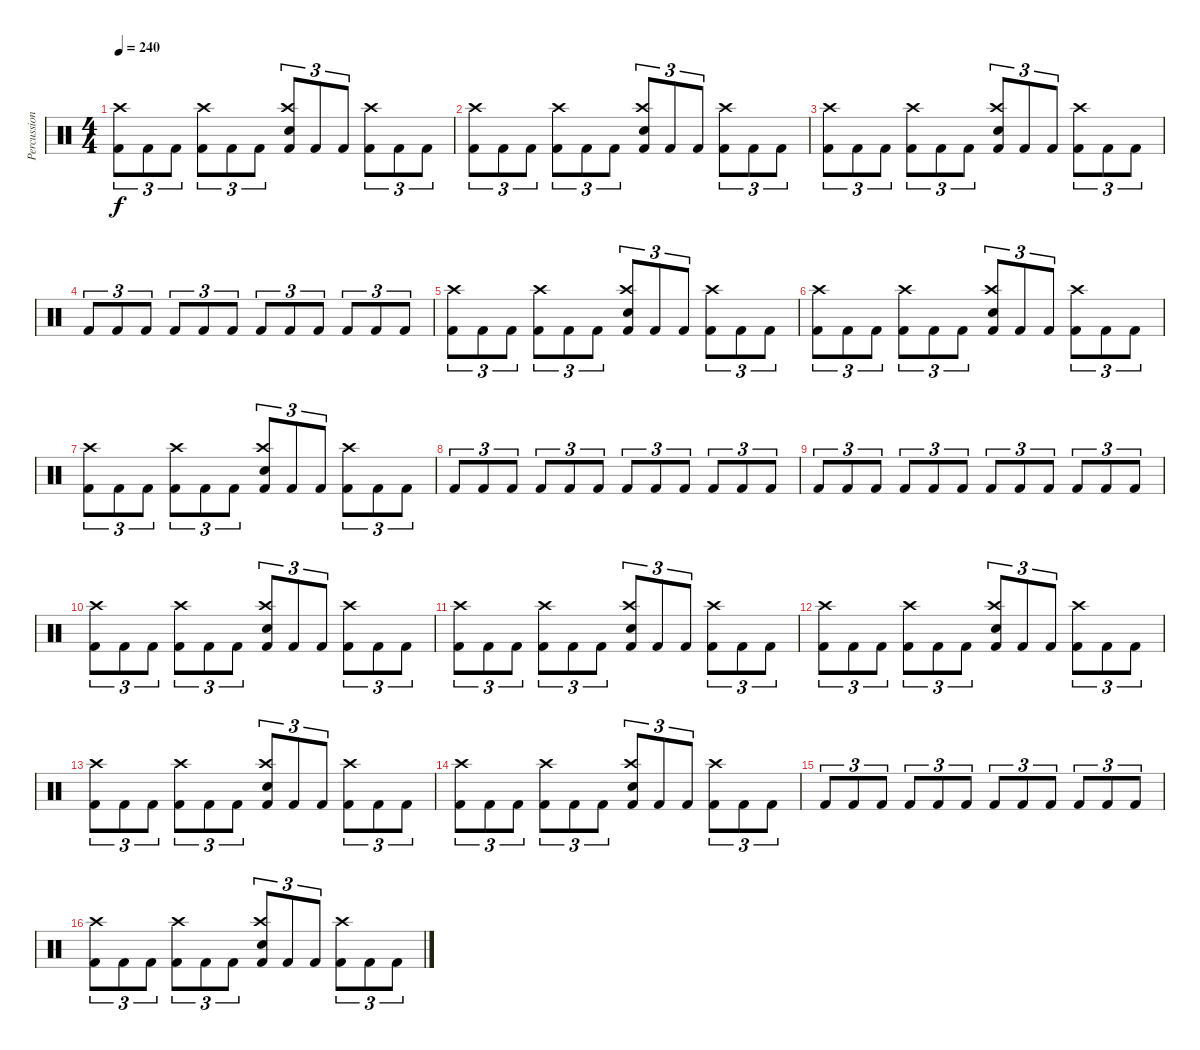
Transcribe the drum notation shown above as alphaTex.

\track ("Percussion" "Percussion") {instrument percussion}
\staff {score}
\articulation defaults
\ts (4 4)
\tempo 240
\clef neutral
\ks c
("Kick (hit) 2" "Crash high (hit)").8{tu (3 2) dy f} "Kick (hit) 2".8{tu (3 2)} "Kick (hit) 2".8{tu (3 2)} ("Kick (hit) 2" "Crash high (hit)").8{tu (3 2)} "Kick (hit) 2".8{tu (3 2)} "Kick (hit) 2".8{tu (3 2)} ("Kick (hit) 2" "Crash high (hit)" "Electric Snare (hit)").8{tu (3 2)} "Kick (hit) 2".8{tu (3 2)} "Kick (hit) 2".8{tu (3 2)} ("Kick (hit) 2" "Crash high (hit)").8{tu (3 2)} "Kick (hit) 2".8{tu (3 2)} "Kick (hit) 2".8{tu (3 2)} |
("Kick (hit) 2" "Crash high (hit)").8{tu (3 2)} "Kick (hit) 2".8{tu (3 2)} "Kick (hit) 2".8{tu (3 2)} ("Kick (hit) 2" "Crash high (hit)").8{tu (3 2)} "Kick (hit) 2".8{tu (3 2)} "Kick (hit) 2".8{tu (3 2)} ("Kick (hit) 2" "Crash high (hit)" "Electric Snare (hit)").8{tu (3 2)} "Kick (hit) 2".8{tu (3 2)} "Kick (hit) 2".8{tu (3 2)} ("Kick (hit) 2" "Crash high (hit)").8{tu (3 2)} "Kick (hit) 2".8{tu (3 2)} "Kick (hit) 2".8{tu (3 2)} |
("Kick (hit) 2" "Crash high (hit)").8{tu (3 2)} "Kick (hit) 2".8{tu (3 2)} "Kick (hit) 2".8{tu (3 2)} ("Kick (hit) 2" "Crash high (hit)").8{tu (3 2)} "Kick (hit) 2".8{tu (3 2)} "Kick (hit) 2".8{tu (3 2)} ("Kick (hit) 2" "Crash high (hit)" "Electric Snare (hit)").8{tu (3 2)} "Kick (hit) 2".8{tu (3 2)} "Kick (hit) 2".8{tu (3 2)} ("Kick (hit) 2" "Crash high (hit)").8{tu (3 2)} "Kick (hit) 2".8{tu (3 2)} "Kick (hit) 2".8{tu (3 2)} |
"Kick (hit) 2".8{tu (3 2)} "Kick (hit) 2".8{tu (3 2)} "Kick (hit) 2".8{tu (3 2)} "Kick (hit) 2".8{tu (3 2)} "Kick (hit) 2".8{tu (3 2)} "Kick (hit) 2".8{tu (3 2)} "Kick (hit) 2".8{tu (3 2)} "Kick (hit) 2".8{tu (3 2)} "Kick (hit) 2".8{tu (3 2)} "Kick (hit) 2".8{tu (3 2)} "Kick (hit) 2".8{tu (3 2)} "Kick (hit) 2".8{tu (3 2)} |
("Kick (hit) 2" "Crash high (hit)").8{tu (3 2)} "Kick (hit) 2".8{tu (3 2)} "Kick (hit) 2".8{tu (3 2)} ("Kick (hit) 2" "Crash high (hit)").8{tu (3 2)} "Kick (hit) 2".8{tu (3 2)} "Kick (hit) 2".8{tu (3 2)} ("Kick (hit) 2" "Crash high (hit)" "Electric Snare (hit)").8{tu (3 2)} "Kick (hit) 2".8{tu (3 2)} "Kick (hit) 2".8{tu (3 2)} ("Kick (hit) 2" "Crash high (hit)").8{tu (3 2)} "Kick (hit) 2".8{tu (3 2)} "Kick (hit) 2".8{tu (3 2)} |
("Kick (hit) 2" "Crash high (hit)").8{tu (3 2)} "Kick (hit) 2".8{tu (3 2)} "Kick (hit) 2".8{tu (3 2)} ("Kick (hit) 2" "Crash high (hit)").8{tu (3 2)} "Kick (hit) 2".8{tu (3 2)} "Kick (hit) 2".8{tu (3 2)} ("Kick (hit) 2" "Crash high (hit)" "Electric Snare (hit)").8{tu (3 2)} "Kick (hit) 2".8{tu (3 2)} "Kick (hit) 2".8{tu (3 2)} ("Kick (hit) 2" "Crash high (hit)").8{tu (3 2)} "Kick (hit) 2".8{tu (3 2)} "Kick (hit) 2".8{tu (3 2)} |
("Kick (hit) 2" "Crash high (hit)").8{tu (3 2)} "Kick (hit) 2".8{tu (3 2)} "Kick (hit) 2".8{tu (3 2)} ("Kick (hit) 2" "Crash high (hit)").8{tu (3 2)} "Kick (hit) 2".8{tu (3 2)} "Kick (hit) 2".8{tu (3 2)} ("Kick (hit) 2" "Crash high (hit)" "Electric Snare (hit)").8{tu (3 2)} "Kick (hit) 2".8{tu (3 2)} "Kick (hit) 2".8{tu (3 2)} ("Kick (hit) 2" "Crash high (hit)").8{tu (3 2)} "Kick (hit) 2".8{tu (3 2)} "Kick (hit) 2".8{tu (3 2)} |
"Kick (hit) 2".8{tu (3 2)} "Kick (hit) 2".8{tu (3 2)} "Kick (hit) 2".8{tu (3 2)} "Kick (hit) 2".8{tu (3 2)} "Kick (hit) 2".8{tu (3 2)} "Kick (hit) 2".8{tu (3 2)} "Kick (hit) 2".8{tu (3 2)} "Kick (hit) 2".8{tu (3 2)} "Kick (hit) 2".8{tu (3 2)} "Kick (hit) 2".8{tu (3 2)} "Kick (hit) 2".8{tu (3 2)} "Kick (hit) 2".8{tu (3 2)} |
"Kick (hit) 2".8{tu (3 2)} "Kick (hit) 2".8{tu (3 2)} "Kick (hit) 2".8{tu (3 2)} "Kick (hit) 2".8{tu (3 2)} "Kick (hit) 2".8{tu (3 2)} "Kick (hit) 2".8{tu (3 2)} "Kick (hit) 2".8{tu (3 2)} "Kick (hit) 2".8{tu (3 2)} "Kick (hit) 2".8{tu (3 2)} "Kick (hit) 2".8{tu (3 2)} "Kick (hit) 2".8{tu (3 2)} "Kick (hit) 2".8{tu (3 2)} |
("Kick (hit) 2" "Crash high (hit)").8{tu (3 2)} "Kick (hit) 2".8{tu (3 2)} "Kick (hit) 2".8{tu (3 2)} ("Kick (hit) 2" "Crash high (hit)").8{tu (3 2)} "Kick (hit) 2".8{tu (3 2)} "Kick (hit) 2".8{tu (3 2)} ("Kick (hit) 2" "Crash high (hit)" "Electric Snare (hit)").8{tu (3 2)} "Kick (hit) 2".8{tu (3 2)} "Kick (hit) 2".8{tu (3 2)} ("Kick (hit) 2" "Crash high (hit)").8{tu (3 2)} "Kick (hit) 2".8{tu (3 2)} "Kick (hit) 2".8{tu (3 2)} |
("Kick (hit) 2" "Crash high (hit)").8{tu (3 2)} "Kick (hit) 2".8{tu (3 2)} "Kick (hit) 2".8{tu (3 2)} ("Kick (hit) 2" "Crash high (hit)").8{tu (3 2)} "Kick (hit) 2".8{tu (3 2)} "Kick (hit) 2".8{tu (3 2)} ("Kick (hit) 2" "Crash high (hit)" "Electric Snare (hit)").8{tu (3 2)} "Kick (hit) 2".8{tu (3 2)} "Kick (hit) 2".8{tu (3 2)} ("Kick (hit) 2" "Crash high (hit)").8{tu (3 2)} "Kick (hit) 2".8{tu (3 2)} "Kick (hit) 2".8{tu (3 2)} |
("Kick (hit) 2" "Crash high (hit)").8{tu (3 2)} "Kick (hit) 2".8{tu (3 2)} "Kick (hit) 2".8{tu (3 2)} ("Kick (hit) 2" "Crash high (hit)").8{tu (3 2)} "Kick (hit) 2".8{tu (3 2)} "Kick (hit) 2".8{tu (3 2)} ("Kick (hit) 2" "Crash high (hit)" "Electric Snare (hit)").8{tu (3 2)} "Kick (hit) 2".8{tu (3 2)} "Kick (hit) 2".8{tu (3 2)} ("Kick (hit) 2" "Crash high (hit)").8{tu (3 2)} "Kick (hit) 2".8{tu (3 2)} "Kick (hit) 2".8{tu (3 2)} |
("Kick (hit) 2" "Crash high (hit)").8{tu (3 2)} "Kick (hit) 2".8{tu (3 2)} "Kick (hit) 2".8{tu (3 2)} ("Kick (hit) 2" "Crash high (hit)").8{tu (3 2)} "Kick (hit) 2".8{tu (3 2)} "Kick (hit) 2".8{tu (3 2)} ("Kick (hit) 2" "Crash high (hit)" "Electric Snare (hit)").8{tu (3 2)} "Kick (hit) 2".8{tu (3 2)} "Kick (hit) 2".8{tu (3 2)} ("Kick (hit) 2" "Crash high (hit)").8{tu (3 2)} "Kick (hit) 2".8{tu (3 2)} "Kick (hit) 2".8{tu (3 2)} |
("Kick (hit) 2" "Crash high (hit)").8{tu (3 2)} "Kick (hit) 2".8{tu (3 2)} "Kick (hit) 2".8{tu (3 2)} ("Kick (hit) 2" "Crash high (hit)").8{tu (3 2)} "Kick (hit) 2".8{tu (3 2)} "Kick (hit) 2".8{tu (3 2)} ("Kick (hit) 2" "Crash high (hit)" "Electric Snare (hit)").8{tu (3 2)} "Kick (hit) 2".8{tu (3 2)} "Kick (hit) 2".8{tu (3 2)} ("Kick (hit) 2" "Crash high (hit)").8{tu (3 2)} "Kick (hit) 2".8{tu (3 2)} "Kick (hit) 2".8{tu (3 2)} |
"Kick (hit) 2".8{tu (3 2)} "Kick (hit) 2".8{tu (3 2)} "Kick (hit) 2".8{tu (3 2)} "Kick (hit) 2".8{tu (3 2)} "Kick (hit) 2".8{tu (3 2)} "Kick (hit) 2".8{tu (3 2)} "Kick (hit) 2".8{tu (3 2)} "Kick (hit) 2".8{tu (3 2)} "Kick (hit) 2".8{tu (3 2)} "Kick (hit) 2".8{tu (3 2)} "Kick (hit) 2".8{tu (3 2)} "Kick (hit) 2".8{tu (3 2)} |
("Kick (hit) 2" "Crash high (hit)").8{tu (3 2)} "Kick (hit) 2".8{tu (3 2)} "Kick (hit) 2".8{tu (3 2)} ("Kick (hit) 2" "Crash high (hit)").8{tu (3 2)} "Kick (hit) 2".8{tu (3 2)} "Kick (hit) 2".8{tu (3 2)} ("Kick (hit) 2" "Crash high (hit)" "Electric Snare (hit)").8{tu (3 2)} "Kick (hit) 2".8{tu (3 2)} "Kick (hit) 2".8{tu (3 2)} ("Kick (hit) 2" "Crash high (hit)").8{tu (3 2)} "Kick (hit) 2".8{tu (3 2)} "Kick (hit) 2".8{tu (3 2)}
